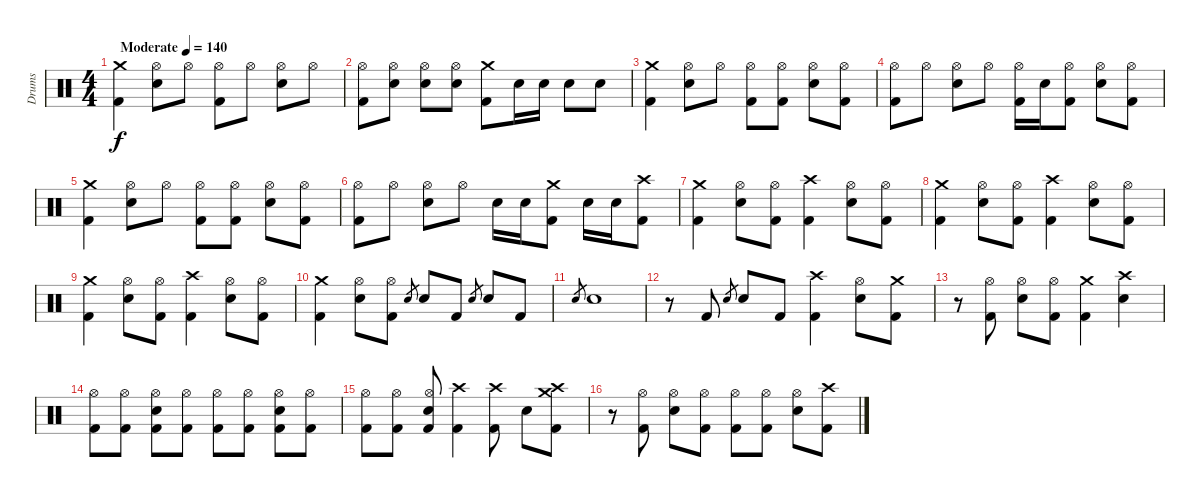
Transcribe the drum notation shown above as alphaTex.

\track ("Drums" "Drums") {instrument percussion}
\staff {score}
\articulation defaults
\ts (4 4)
\tempo (140 "Moderate")
\clef neutral
\ks c
("Crash medium (hit)" "Kick (hit) 2").4{dy f} ("Hi-Hat (open)" "Electric Snare (hit)").8 "Hi-Hat (open)".8 ("Hi-Hat (open)" "Kick (hit) 2").8 "Hi-Hat (open)".8 ("Hi-Hat (open)" "Electric Snare (hit)").8 "Hi-Hat (open)".8 |
("Hi-Hat (open)" "Kick (hit) 2").8 ("Hi-Hat (open)" "Electric Snare (hit)").8 ("Hi-Hat (open)" "Electric Snare (hit)").8 ("Hi-Hat (open)" "Electric Snare (hit)").8 ("Crash medium (hit)" "Kick (hit) 2").8 "Electric Snare (hit)".16 "Electric Snare (hit)".16 "Electric Snare (hit)".8 "Electric Snare (hit)".8 |
("Crash medium (hit)" "Kick (hit) 2").4 ("Hi-Hat (open)" "Electric Snare (hit)").8 "Hi-Hat (open)".8 ("Hi-Hat (open)" "Kick (hit) 2").8 ("Hi-Hat (open)" "Kick (hit) 2").8 ("Hi-Hat (open)" "Electric Snare (hit)").8 ("Hi-Hat (open)" "Kick (hit) 2").8 |
("Hi-Hat (open)" "Kick (hit) 2").8 "Hi-Hat (open)".8 ("Hi-Hat (open)" "Electric Snare (hit)").8 "Hi-Hat (open)".8 ("Hi-Hat (open)" "Kick (hit) 2").16 "Electric Snare (hit)".16 ("Hi-Hat (open)" "Kick (hit) 2").8 ("Hi-Hat (open)" "Electric Snare (hit)").8 ("Hi-Hat (open)" "Kick (hit) 2").8 |
("Crash medium (hit)" "Kick (hit) 2").4 ("Hi-Hat (open)" "Electric Snare (hit)").8 "Hi-Hat (open)".8 ("Hi-Hat (open)" "Kick (hit) 2").8 ("Hi-Hat (open)" "Kick (hit) 2").8 ("Hi-Hat (open)" "Electric Snare (hit)").8 ("Hi-Hat (open)" "Kick (hit) 2").8 |
("Hi-Hat (open)" "Kick (hit) 2").8 "Hi-Hat (open)".8 ("Hi-Hat (open)" "Electric Snare (hit)").8 "Hi-Hat (open)".8 "Electric Snare (hit)".16 "Electric Snare (hit)".16 ("Crash medium (hit)" "Kick (hit) 2").8 "Electric Snare (hit)".16 "Electric Snare (hit)".16 ("Crash high (hit)" "Kick (hit) 2").8 |
("Crash medium (hit)" "Kick (hit) 2").4 ("Hi-Hat (open)" "Electric Snare (hit)").8 ("Hi-Hat (open)" "Kick (hit) 2").8 ("Crash high (hit)" "Kick (hit) 2").4 ("Hi-Hat (open)" "Electric Snare (hit)").8 ("Hi-Hat (open)" "Kick (hit) 2").8 |
("Crash medium (hit)" "Kick (hit) 2").4 ("Hi-Hat (open)" "Electric Snare (hit)").8 ("Hi-Hat (open)" "Kick (hit) 2").8 ("Crash high (hit)" "Kick (hit) 2").4 ("Hi-Hat (open)" "Electric Snare (hit)").8 ("Hi-Hat (open)" "Kick (hit) 2").8 |
("Crash medium (hit)" "Kick (hit) 2").4 ("Hi-Hat (open)" "Electric Snare (hit)").8 ("Hi-Hat (open)" "Kick (hit) 2").8 ("Crash high (hit)" "Kick (hit) 2").4 ("Hi-Hat (open)" "Electric Snare (hit)").8 ("Hi-Hat (open)" "Kick (hit) 2").8 |
("Crash medium (hit)" "Kick (hit) 2").4 ("Hi-Hat (open)" "Electric Snare (hit)").8 ("Hi-Hat (open)" "Kick (hit) 2").8 "Electric Snare (hit)".8{gr} "Electric Snare (hit)".8 "Kick (hit) 2".8 "Electric Snare (hit)".8{gr} "Electric Snare (hit)".8 "Kick (hit) 2".8 |
"Electric Snare (hit)".8{gr} "Electric Snare (hit)".1 |
r.8 "Kick (hit) 2".8 "Electric Snare (hit)".8{gr} "Electric Snare (hit)".8 "Kick (hit) 2".8 ("Crash high (hit)" "Kick (hit) 2").4 ("Hi-Hat (open)" "Electric Snare (hit)").8 ("Crash medium (hit)" "Kick (hit) 2").8 |
r.8 ("Hi-Hat (open)" "Kick (hit) 2").8 ("Hi-Hat (open)" "Electric Snare (hit)").8 ("Hi-Hat (open)" "Kick (hit) 2").8 ("Crash medium (hit)" "Kick (hit) 2").4 ("Crash high (hit)" "Electric Snare (hit)").4 |
("Hi-Hat (open)" "Kick (hit) 2").8 ("Hi-Hat (open)" "Kick (hit) 2").8 ("Hi-Hat (open)" "Electric Snare (hit)" "Kick (hit) 2").8 ("Hi-Hat (open)" "Kick (hit) 2").8 ("Hi-Hat (open)" "Kick (hit) 2").8 ("Hi-Hat (open)" "Kick (hit) 2").8 ("Hi-Hat (open)" "Electric Snare (hit)" "Kick (hit) 2").8 ("Hi-Hat (open)" "Kick (hit) 2").8 |
("Hi-Hat (open)" "Kick (hit) 2").8 ("Hi-Hat (open)" "Kick (hit) 2").8 ("Hi-Hat (open)" "Electric Snare (hit)" "Kick (hit) 2").8 ("Crash high (hit)" "Kick (hit) 2").4 ("Crash high (hit)" "Kick (hit) 2").8 "Electric Snare (hit)".8 ("Crash medium (hit)" "Crash high (hit)" "Kick (hit) 2").8 |
r.8 ("Hi-Hat (open)" "Kick (hit) 2").8 ("Hi-Hat (open)" "Electric Snare (hit)").8 ("Hi-Hat (open)" "Kick (hit) 2").8 ("Hi-Hat (open)" "Kick (hit) 2").8 ("Hi-Hat (open)" "Kick (hit) 2").8 ("Hi-Hat (open)" "Electric Snare (hit)").8 ("Crash high (hit)" "Kick (hit) 2").8
